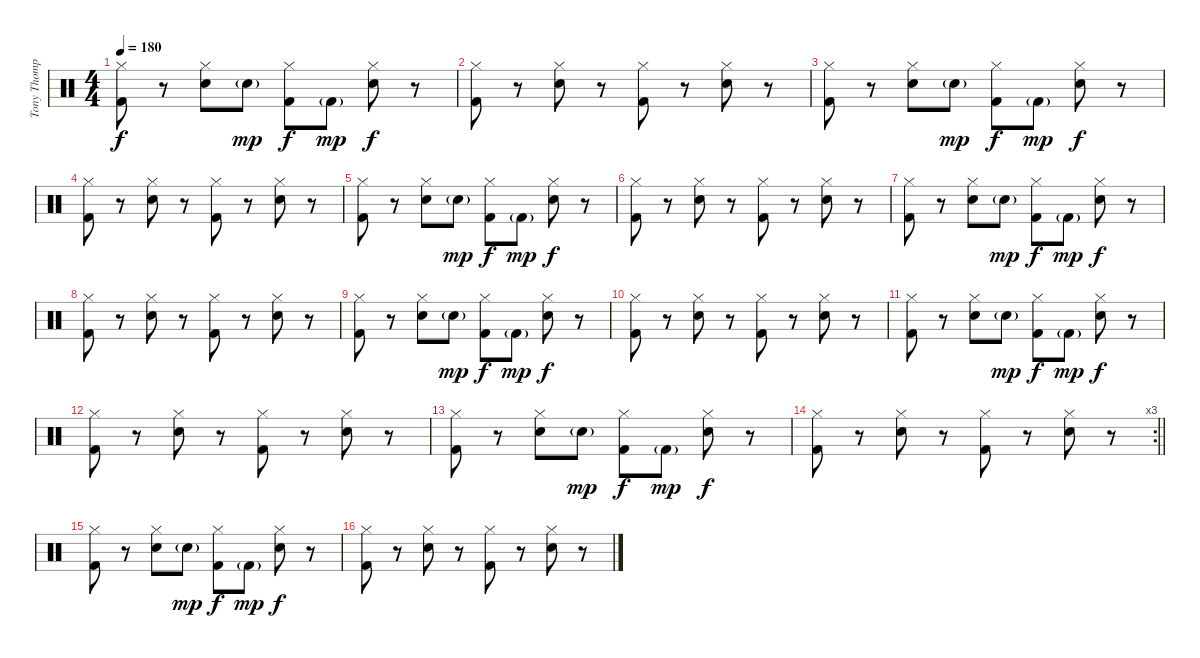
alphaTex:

\track ("Tony Thompson (Drums)" "Tony Thomp") {instrument percussion}
\staff {score}
\articulation defaults
\ts (4 4)
\tempo 180
\clef neutral
\ks c
("Hi-Hat (closed)" "Kick (hit) 2").8{dy f} r.8 ("Hi-Hat (closed)" "Electric Snare (hit)").8 "Electric Snare (hit)"{g}.8{dy mp} ("Hi-Hat (closed)" "Kick (hit) 2").8{dy f} "Kick (hit) 2"{g}.8{dy mp} ("Hi-Hat (closed)" "Electric Snare (hit)").8{dy f} r.8 |
("Hi-Hat (closed)" "Kick (hit) 2").8 r.8 ("Hi-Hat (closed)" "Electric Snare (hit)").8 r.8 ("Hi-Hat (closed)" "Kick (hit) 2").8 r.8 ("Hi-Hat (closed)" "Electric Snare (hit)").8 r.8 |
("Hi-Hat (closed)" "Kick (hit) 2").8 r.8 ("Hi-Hat (closed)" "Electric Snare (hit)").8 "Electric Snare (hit)"{g}.8{dy mp} ("Hi-Hat (closed)" "Kick (hit) 2").8{dy f} "Kick (hit) 2"{g}.8{dy mp} ("Hi-Hat (closed)" "Electric Snare (hit)").8{dy f} r.8 |
("Hi-Hat (closed)" "Kick (hit) 2").8 r.8 ("Hi-Hat (closed)" "Electric Snare (hit)").8 r.8 ("Hi-Hat (closed)" "Kick (hit) 2").8 r.8 ("Hi-Hat (closed)" "Electric Snare (hit)").8 r.8 |
("Hi-Hat (closed)" "Kick (hit) 2").8 r.8 ("Hi-Hat (closed)" "Electric Snare (hit)").8 "Electric Snare (hit)"{g}.8{dy mp} ("Hi-Hat (closed)" "Kick (hit) 2").8{dy f} "Kick (hit) 2"{g}.8{dy mp} ("Hi-Hat (closed)" "Electric Snare (hit)").8{dy f} r.8 |
("Hi-Hat (closed)" "Kick (hit) 2").8 r.8 ("Hi-Hat (closed)" "Electric Snare (hit)").8 r.8 ("Hi-Hat (closed)" "Kick (hit) 2").8 r.8 ("Hi-Hat (closed)" "Electric Snare (hit)").8 r.8 |
("Hi-Hat (closed)" "Kick (hit) 2").8 r.8 ("Hi-Hat (closed)" "Electric Snare (hit)").8 "Electric Snare (hit)"{g}.8{dy mp} ("Hi-Hat (closed)" "Kick (hit) 2").8{dy f} "Kick (hit) 2"{g}.8{dy mp} ("Hi-Hat (closed)" "Electric Snare (hit)").8{dy f} r.8 |
("Hi-Hat (closed)" "Kick (hit) 2").8 r.8 ("Hi-Hat (closed)" "Electric Snare (hit)").8 r.8 ("Hi-Hat (closed)" "Kick (hit) 2").8 r.8 ("Hi-Hat (closed)" "Electric Snare (hit)").8 r.8 |
("Hi-Hat (closed)" "Kick (hit) 2").8 r.8 ("Hi-Hat (closed)" "Electric Snare (hit)").8 "Electric Snare (hit)"{g}.8{dy mp} ("Hi-Hat (closed)" "Kick (hit) 2").8{dy f} "Kick (hit) 2"{g}.8{dy mp} ("Hi-Hat (closed)" "Electric Snare (hit)").8{dy f} r.8 |
("Hi-Hat (closed)" "Kick (hit) 2").8 r.8 ("Hi-Hat (closed)" "Electric Snare (hit)").8 r.8 ("Hi-Hat (closed)" "Kick (hit) 2").8 r.8 ("Hi-Hat (closed)" "Electric Snare (hit)").8 r.8 |
("Hi-Hat (closed)" "Kick (hit) 2").8 r.8 ("Hi-Hat (closed)" "Electric Snare (hit)").8 "Electric Snare (hit)"{g}.8{dy mp} ("Hi-Hat (closed)" "Kick (hit) 2").8{dy f} "Kick (hit) 2"{g}.8{dy mp} ("Hi-Hat (closed)" "Electric Snare (hit)").8{dy f} r.8 |
("Hi-Hat (closed)" "Kick (hit) 2").8 r.8 ("Hi-Hat (closed)" "Electric Snare (hit)").8 r.8 ("Hi-Hat (closed)" "Kick (hit) 2").8 r.8 ("Hi-Hat (closed)" "Electric Snare (hit)").8 r.8 |
("Hi-Hat (closed)" "Kick (hit) 2").8 r.8 ("Hi-Hat (closed)" "Electric Snare (hit)").8 "Electric Snare (hit)"{g}.8{dy mp} ("Hi-Hat (closed)" "Kick (hit) 2").8{dy f} "Kick (hit) 2"{g}.8{dy mp} ("Hi-Hat (closed)" "Electric Snare (hit)").8{dy f} r.8 |
\rc 3
\barLineRight lightlight
("Hi-Hat (closed)" "Kick (hit) 2").8 r.8 ("Hi-Hat (closed)" "Electric Snare (hit)").8 r.8 ("Hi-Hat (closed)" "Kick (hit) 2").8 r.8 ("Hi-Hat (closed)" "Electric Snare (hit)").8 r.8 |
("Hi-Hat (closed)" "Kick (hit) 2").8 r.8 ("Hi-Hat (closed)" "Electric Snare (hit)").8 "Electric Snare (hit)"{g}.8{dy mp} ("Hi-Hat (closed)" "Kick (hit) 2").8{dy f} "Kick (hit) 2"{g}.8{dy mp} ("Hi-Hat (closed)" "Electric Snare (hit)").8{dy f} r.8 |
("Hi-Hat (closed)" "Kick (hit) 2").8 r.8 ("Hi-Hat (closed)" "Electric Snare (hit)").8 r.8 ("Hi-Hat (closed)" "Kick (hit) 2").8 r.8 ("Hi-Hat (closed)" "Electric Snare (hit)").8 r.8
